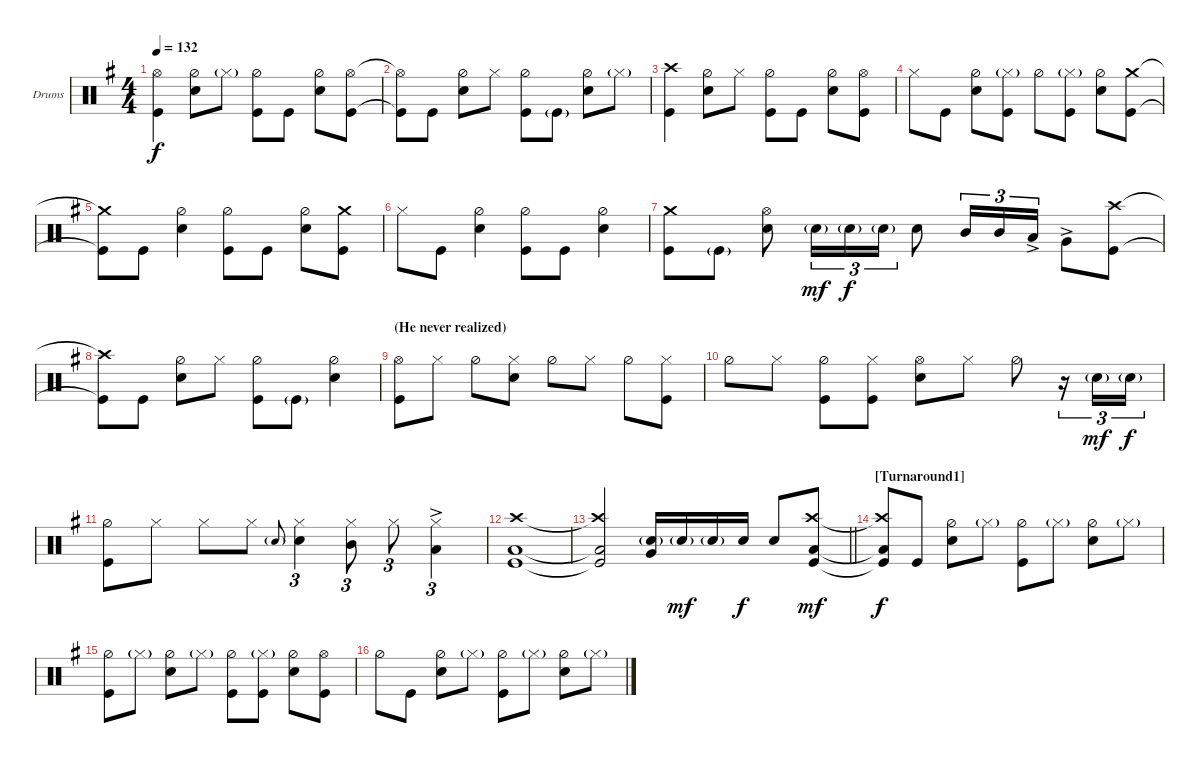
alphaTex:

\bracketExtendMode groupsimilarinstruments
\firstSystemTrackNameOrientation horizontal
\otherSystemsTrackNameOrientation horizontal
\track ("Drumkit" "Drums") {instrument percussion}
\staff {score}
\articulation defaults
\ts (4 4)
\tempo 132
\clef neutral
\scale
0.333333
\ks g
("Kick (hit)" "Hi-Hat (open)").4{dy f} ("Hi-Hat (half)" "Snare (hit) 2").8 "Hi-Hat (closed)"{g}.8 ("Hi-Hat (half)" "Kick (hit)").8 "Kick (hit)".8 ("Hi-Hat (half)" "Snare (hit) 2").8 ("Kick (hit)" "Hi-Hat (open)").8 |
\scale
0.333333 ("Kick (hit)"{t} "Hi-Hat (open)"{t}).8 "Kick (hit)".8 ("Hi-Hat (half)" "Snare (hit) 2").8 "Hi-Hat (closed)".8 ("Hi-Hat (half)" "Kick (hit)").8 "Kick (hit)"{g}.8 ("Hi-Hat (half)" "Snare (hit) 2").8 "Hi-Hat (closed)"{g}.8 |
\scale
0.333333 ("Kick (hit)" "Crash high (hit)").4 ("Hi-Hat (half)" "Snare (hit) 2").8 "Hi-Hat (closed)".8 ("Hi-Hat (half)" "Kick (hit)").8 "Kick (hit)".8 ("Hi-Hat (half)" "Snare (hit) 2").8 ("Kick (hit)" "Hi-Hat (open)").8 |
\scale
0.333333 "Hi-Hat (closed)".8 "Kick (hit)".8 ("Snare (hit) 2" "Hi-Hat (half)").8 ("Kick (hit)" "Hi-Hat (closed)"{g}).8 "Hi-Hat (half)".8 ("Kick (hit)" "Hi-Hat (closed)"{g}).8 ("Snare (hit) 2" "Hi-Hat (half)").8 ("Kick (hit)" "Crash medium (hit)").8 |
\scale
0.333333 ("Kick (hit)"{t} "Crash medium (hit)"{t}).8 "Kick (hit)".8 ("Hi-Hat (half)" "Snare (hit) 2").4 ("Hi-Hat (half)" "Kick (hit)").8 "Kick (hit)".8 ("Hi-Hat (half)" "Snare (hit) 2").8 ("Kick (hit)" "Crash medium (hit)").8 |
\scale
0.333333 "Hi-Hat (closed)".8 "Kick (hit)".8 ("Hi-Hat (half)" "Snare (hit) 2").4 ("Hi-Hat (half)" "Kick (hit)").8 "Kick (hit)".8 ("Hi-Hat (half)" "Snare (hit) 2").4 |
\scale
0.333333 ("Crash medium (hit)" "Kick (hit)").8 "Kick (hit)"{g}.8 ("Snare (hit) 2" "Hi-Hat (open)").8 "Snare (hit) 2"{g}.16{tu (3 2) dy mf} "Snare (hit) 2"{g}.16{tu (3 2) dy f} "Snare (hit) 2"{g}.16{tu (3 2)} "Snare (hit) 2".8 "Mid Tom (hit)".16{tu (3 2)} "Mid Tom (hit)".16{tu (3 2)} "Low Tom (hit)"{ac}.16{tu (3 2)} "Very Low Tom (hit)"{ac}.8 ("Kick (hit)" "Crash high (hit)").8 |
\scale
0.333333 ("Kick (hit)"{t} "Crash high (hit)"{t}).8 "Kick (hit)".8 ("Hi-Hat (half)" "Snare (hit) 2").8 "Hi-Hat (closed)".8 ("Hi-Hat (half)" "Kick (hit)").8 "Kick (hit)"{g}.8 ("Hi-Hat (half)" "Snare (hit) 2").4 |
\section ("" "(He never realized)")
\scale
0.333333 ("Hi-Hat (open)" "Kick (hit)").8 "Hi-Hat (closed)".8 "Hi-Hat (half)".8 ("Hi-Hat (closed)" "Snare (hit) 2").8 "Hi-Hat (half)".8 "Hi-Hat (closed)".8 "Hi-Hat (half)".8 ("Hi-Hat (closed)" "Kick (hit)").8 |
\scale
0.333333 "Hi-Hat (half)".8 "Hi-Hat (closed)".8 ("Hi-Hat (half)" "Kick (hit)").8 ("Hi-Hat (closed)" "Kick (hit)").8 ("Hi-Hat (open)" "Snare (hit) 2").8 "Hi-Hat (closed)".8 "Hi-Hat (half)".8 r.16{tu (3 2)} "Snare (hit) 2"{g}.16{tu (3 2) dy mf} "Snare (hit) 2"{g}.16{tu (3 2) dy f} |
\scale
0.333333 ("Hi-Hat (half)" "Kick (hit)").8 "Hi-Hat (closed)".8 "Hi-Hat (closed)".8 "Hi-Hat (closed)".8 "Snare (hit) 2"{g}.8{gr onbeat} ("Hi-Hat (closed)" "Snare (hit) 2").4{tu (3 2)} ("Mid Tom (hit)" "Hi-Hat (closed)").8{tu (3 2)} "Hi-Hat (closed)".8{tu (3 2)} ("Low Tom (hit)"{ac} "Hi-Hat (closed)").4{tu (3 2)} |
\scale
0.333333 ("Crash high (hit)" "Kick (hit)" "Low Tom (hit)").1 |
\scale
0.333333
\barLineRight lightlight
("Crash high (hit)"{t} "Kick (hit)"{t} "Low Tom (hit)"{t}).2 ("Very Low Tom (hit)" "Snare (hit) 2"{g}).16 "Snare (hit) 2"{g}.16{dy mf} "Snare (hit) 2"{g}.16 "Snare (hit) 2".16{dy f} "Snare (hit) 2".8 ("Kick (hit)" "Crash high (hit)" "Low Tom (hit)").8{dy mf} |
\section ("" "[Turnaround1] ")
\scale
0.333333 ("Kick (hit)"{t} "Crash high (hit)"{t} "Low Tom (hit)"{t}).8{dy f} "Kick (hit)".8 ("Hi-Hat (half)" "Snare (hit) 2").8 "Hi-Hat (closed)"{g}.8 ("Hi-Hat (half)" "Kick (hit)").8 "Hi-Hat (closed)"{g}.8 ("Hi-Hat (half)" "Snare (hit) 2").8 "Hi-Hat (closed)"{g}.8 |
\scale
0.333333 ("Hi-Hat (half)" "Kick (hit)").8 "Hi-Hat (closed)"{g}.8 ("Hi-Hat (half)" "Snare (hit) 2").8 "Hi-Hat (closed)"{g}.8 ("Hi-Hat (half)" "Kick (hit)").8 ("Hi-Hat (closed)"{g} "Kick (hit)").8 ("Hi-Hat (half)" "Snare (hit) 2").8 ("Kick (hit)" "Hi-Hat (open)").8 |
\scale
0.333333 "Hi-Hat (half)".8 "Kick (hit)".8 ("Hi-Hat (half)" "Snare (hit) 2").8 "Hi-Hat (closed)"{g}.8 ("Hi-Hat (half)" "Kick (hit)").8 "Hi-Hat (closed)"{g}.8 ("Hi-Hat (half)" "Snare (hit) 2").8 "Hi-Hat (closed)"{g}.8
